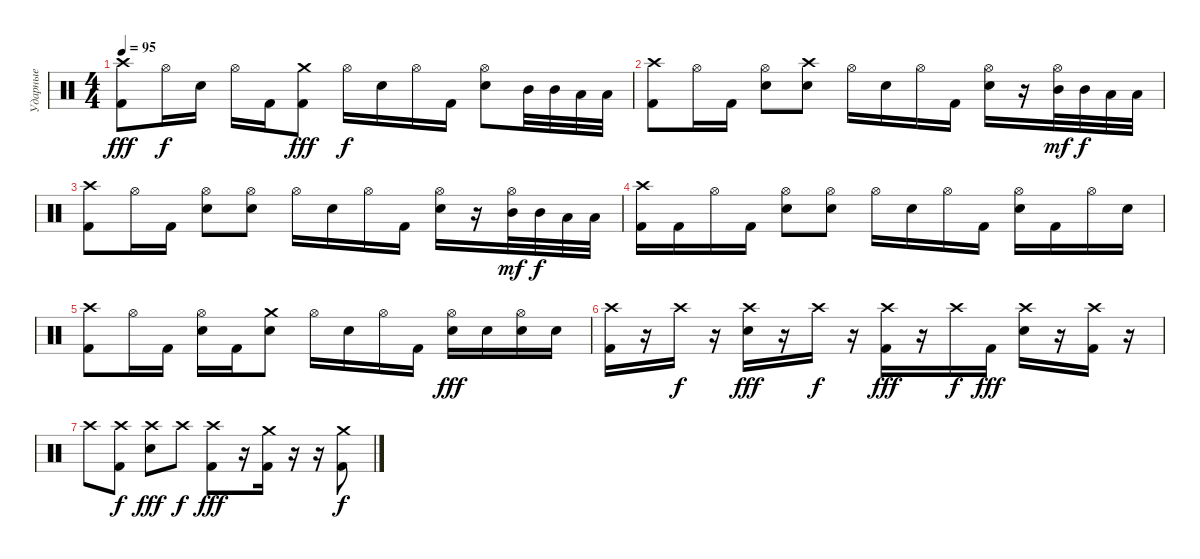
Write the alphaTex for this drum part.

\track ("Ударные" "Ударные") {instrument percussion}
\staff {score}
\articulation defaults
\ts (4 4)
\tempo 95
\clef neutral
\ks c
("Crash high (hit)" "Kick (hit) 2").8{dy fff} "Hi-Hat (open)".16{dy f} "Electric Snare (hit)".16 "Hi-Hat (open)".16 "Kick (hit) 2".16 ("Crash medium (hit)" "Kick (hit) 2").8{dy fff} "Hi-Hat (open)".16{dy f} "Electric Snare (hit)".16 "Hi-Hat (open)".16 "Kick (hit) 2".16 ("Hi-Hat (open)" "Electric Snare (hit)").8 "Mid Tom (hit)".32 "Mid Tom (hit)".32 "Low Tom (hit)".32 "Low Tom (hit)".32 |
("Crash high (hit)" "Kick (hit) 2").8 "Hi-Hat (open)".16 "Kick (hit) 2".16 ("Hi-Hat (open)" "Electric Snare (hit)").8 ("Crash high (hit)" "Electric Snare (hit)").8 "Hi-Hat (open)".16 "Electric Snare (hit)".16 "Hi-Hat (open)".16 "Kick (hit) 2".16 ("Hi-Hat (open)" "Electric Snare (hit)").16 r.16 ("Hi-Hat (open)" "Mid Tom (hit)").32{dy mf} "Mid Tom (hit)".32{dy f} "Low Tom (hit)".32 "Low Tom (hit)".32 |
("Crash high (hit)" "Kick (hit) 2").8 "Hi-Hat (open)".16 "Kick (hit) 2".16 ("Hi-Hat (open)" "Electric Snare (hit)").8 ("Hi-Hat (open)" "Electric Snare (hit)").8 "Hi-Hat (open)".16 "Electric Snare (hit)".16 "Hi-Hat (open)".16 "Kick (hit) 2".16 ("Hi-Hat (open)" "Electric Snare (hit)").16 r.16 ("Hi-Hat (open)" "Mid Tom (hit)").32{dy mf} "Mid Tom (hit)".32{dy f} "Low Tom (hit)".32 "Low Tom (hit)".32 |
("Crash high (hit)" "Kick (hit) 2").16 "Kick (hit) 2".16 "Hi-Hat (open)".16 "Kick (hit) 2".16 ("Hi-Hat (open)" "Electric Snare (hit)").8 ("Hi-Hat (open)" "Electric Snare (hit)").8 "Hi-Hat (open)".16 "Electric Snare (hit)".16 "Hi-Hat (open)".16 "Kick (hit) 2".16 ("Hi-Hat (open)" "Electric Snare (hit)").16 "Kick (hit) 2".16 "Hi-Hat (open)".16 "Electric Snare (hit)".16 |
("Crash high (hit)" "Kick (hit) 2").8 "Hi-Hat (open)".16 "Kick (hit) 2".16 ("Hi-Hat (open)" "Electric Snare (hit)").16 "Kick (hit) 2".16 ("Crash medium (hit)" "Electric Snare (hit)").8 "Hi-Hat (open)".16 "Electric Snare (hit)".16 "Hi-Hat (open)".16 "Kick (hit) 2".16 ("Hi-Hat (open)" "Electric Snare (hit)").16{dy fff} "Electric Snare (hit)".16 ("Hi-Hat (open)" "Electric Snare (hit)").16 "Electric Snare (hit)".16 |
("Crash high (hit)" "Kick (hit) 2").16 r.16 "Crash high (hit)".16{dy f} r.16 ("Crash high (hit)" "Electric Snare (hit)").16{dy fff} r.16 "Crash high (hit)".16{dy f} r.16 ("Crash high (hit)" "Kick (hit) 2").16{dy fff} r.16 "Crash high (hit)".16{dy f} "Kick (hit) 2".16{dy fff} ("Crash high (hit)" "Electric Snare (hit)").16 r.16 ("Crash high (hit)" "Kick (hit) 2").16 r.16 |
"Crash high (hit)".8 ("Crash high (hit)" "Kick (hit) 2").8{dy f} ("Crash high (hit)" "Electric Snare (hit)").8{dy fff} "Crash high (hit)".8{dy f} ("Crash high (hit)" "Kick (hit) 2").8{dy fff} r.16 ("Crash medium (hit)" "Kick (hit) 2").16 r.16 r.16 ("Crash medium (hit)" "Kick (hit) 2").8{dy f}
